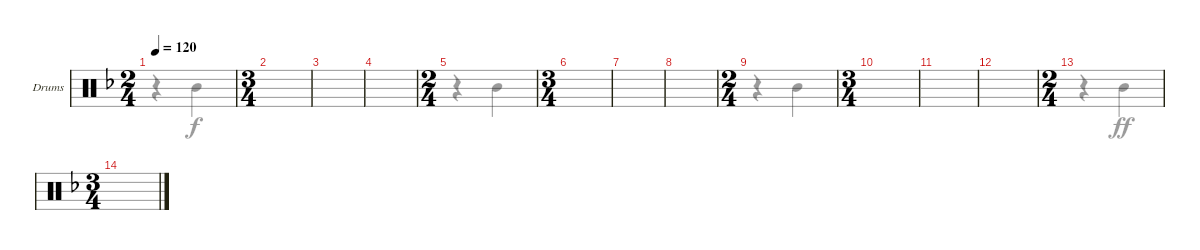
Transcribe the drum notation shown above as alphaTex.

\defaultSystemsLayout 4
\bracketExtendMode groupsimilarinstruments
\firstSystemTrackNameOrientation horizontal
\otherSystemsTrackNameOrientation horizontal
\track ("Drumkit" "Drums") {instrument percussion}
\staff {score}
\articulation defaults
\voice
\ts (2 4)
\tempo 120
\clef neutral
\ks f
|
\ts (3 4)
|
|
|
\ts (2 4)
|
\ts (3 4)
|
|
|
\ts (2 4)
|
\ts (3 4)
|
|
|
\ts (2 4)
|
\ts (3 4)
|
|
\voice
\clef neutral
\ks f
r.4{dy f} "Mid Tom (hit)".4 |
|
|
|
r.4 "Mid Tom (hit)".4 |
|
|
|
r.4 "Mid Tom (hit)".4 |
|
|
|
r.4 "Mid Tom (hit)".4{dy ff} |
|
|
